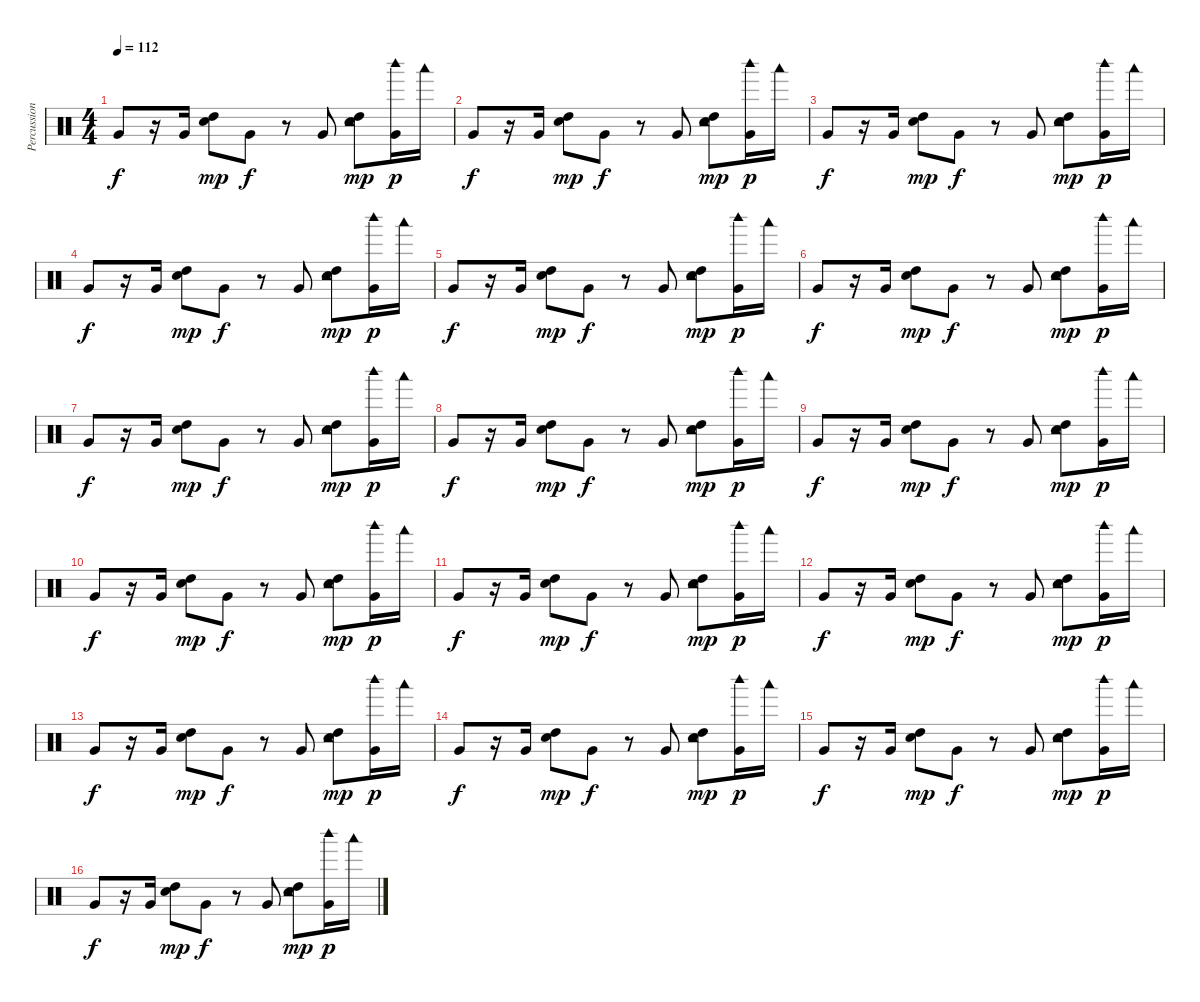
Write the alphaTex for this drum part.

\track ("Percussion" "Percussion") {instrument percussion}
\staff {score}
\articulation defaults
\ts (4 4)
\tempo 112
\clef neutral
\ks c "Very Low Tom (hit)".8{dy f}
r.16 "Very Low Tom (hit)".16 ("Snare (hit) 2" "High Tom (hit)").8{dy mp} "Very Low Tom (hit)".8{dy f} r.8 "Very Low Tom (hit)".8 ("Tambourine (hit)" "Snare (hit) 2" "High Tom (hit)").8{dy mp} ("Woodblock high (hit)" "Very Low Tom (hit)").16{dy p} "Woodblock low (hit)".16 |
"Very Low Tom (hit)".8{dy f} r.16 "Very Low Tom (hit)".16 ("Snare (hit) 2" "High Tom (hit)").8{dy mp} "Very Low Tom (hit)".8{dy f} r.8 "Very Low Tom (hit)".8 ("Tambourine (hit)" "Snare (hit) 2" "High Tom (hit)").8{dy mp} ("Woodblock high (hit)" "Very Low Tom (hit)").16{dy p} "Woodblock low (hit)".16 |
"Very Low Tom (hit)".8{dy f} r.16 "Very Low Tom (hit)".16 ("Snare (hit) 2" "High Tom (hit)").8{dy mp} "Very Low Tom (hit)".8{dy f} r.8 "Very Low Tom (hit)".8 ("Tambourine (hit)" "Snare (hit) 2" "High Tom (hit)").8{dy mp} ("Woodblock high (hit)" "Very Low Tom (hit)").16{dy p} "Woodblock low (hit)".16 |
"Very Low Tom (hit)".8{dy f} r.16 "Very Low Tom (hit)".16 ("Snare (hit) 2" "High Tom (hit)").8{dy mp} "Very Low Tom (hit)".8{dy f} r.8 "Very Low Tom (hit)".8 ("Tambourine (hit)" "Snare (hit) 2" "High Tom (hit)").8{dy mp} ("Woodblock high (hit)" "Very Low Tom (hit)").16{dy p} "Woodblock low (hit)".16 |
"Very Low Tom (hit)".8{dy f} r.16 "Very Low Tom (hit)".16 ("Snare (hit) 2" "High Tom (hit)").8{dy mp} "Very Low Tom (hit)".8{dy f} r.8 "Very Low Tom (hit)".8 ("Tambourine (hit)" "Snare (hit) 2" "High Tom (hit)").8{dy mp} ("Woodblock high (hit)" "Very Low Tom (hit)").16{dy p} "Woodblock low (hit)".16 |
"Very Low Tom (hit)".8{dy f} r.16 "Very Low Tom (hit)".16 ("Snare (hit) 2" "High Tom (hit)").8{dy mp} "Very Low Tom (hit)".8{dy f} r.8 "Very Low Tom (hit)".8 ("Tambourine (hit)" "Snare (hit) 2" "High Tom (hit)").8{dy mp} ("Woodblock high (hit)" "Very Low Tom (hit)").16{dy p} "Woodblock low (hit)".16 |
"Very Low Tom (hit)".8{dy f} r.16 "Very Low Tom (hit)".16 ("Snare (hit) 2" "High Tom (hit)").8{dy mp} "Very Low Tom (hit)".8{dy f} r.8 "Very Low Tom (hit)".8 ("Tambourine (hit)" "Snare (hit) 2" "High Tom (hit)").8{dy mp} ("Woodblock high (hit)" "Very Low Tom (hit)").16{dy p} "Woodblock low (hit)".16 |
"Very Low Tom (hit)".8{dy f} r.16 "Very Low Tom (hit)".16 ("Snare (hit) 2" "High Tom (hit)").8{dy mp} "Very Low Tom (hit)".8{dy f} r.8 "Very Low Tom (hit)".8 ("Tambourine (hit)" "Snare (hit) 2" "High Tom (hit)").8{dy mp} ("Woodblock high (hit)" "Very Low Tom (hit)").16{dy p} "Woodblock low (hit)".16 |
"Very Low Tom (hit)".8{dy f} r.16 "Very Low Tom (hit)".16 ("Snare (hit) 2" "High Tom (hit)").8{dy mp} "Very Low Tom (hit)".8{dy f} r.8 "Very Low Tom (hit)".8 ("Tambourine (hit)" "Snare (hit) 2" "High Tom (hit)").8{dy mp} ("Woodblock high (hit)" "Very Low Tom (hit)").16{dy p} "Woodblock low (hit)".16 |
"Very Low Tom (hit)".8{dy f} r.16 "Very Low Tom (hit)".16 ("Snare (hit) 2" "High Tom (hit)").8{dy mp} "Very Low Tom (hit)".8{dy f} r.8 "Very Low Tom (hit)".8 ("Tambourine (hit)" "Snare (hit) 2" "High Tom (hit)").8{dy mp} ("Woodblock high (hit)" "Very Low Tom (hit)").16{dy p} "Woodblock low (hit)".16 |
"Very Low Tom (hit)".8{dy f} r.16 "Very Low Tom (hit)".16 ("Snare (hit) 2" "High Tom (hit)").8{dy mp} "Very Low Tom (hit)".8{dy f} r.8 "Very Low Tom (hit)".8 ("Tambourine (hit)" "Snare (hit) 2" "High Tom (hit)").8{dy mp} ("Woodblock high (hit)" "Very Low Tom (hit)").16{dy p} "Woodblock low (hit)".16 |
"Very Low Tom (hit)".8{dy f} r.16 "Very Low Tom (hit)".16 ("Snare (hit) 2" "High Tom (hit)").8{dy mp} "Very Low Tom (hit)".8{dy f} r.8 "Very Low Tom (hit)".8 ("Tambourine (hit)" "Snare (hit) 2" "High Tom (hit)").8{dy mp} ("Woodblock high (hit)" "Very Low Tom (hit)").16{dy p} "Woodblock low (hit)".16 |
"Very Low Tom (hit)".8{dy f} r.16 "Very Low Tom (hit)".16 ("Snare (hit) 2" "High Tom (hit)").8{dy mp} "Very Low Tom (hit)".8{dy f} r.8 "Very Low Tom (hit)".8 ("Tambourine (hit)" "Snare (hit) 2" "High Tom (hit)").8{dy mp} ("Woodblock high (hit)" "Very Low Tom (hit)").16{dy p} "Woodblock low (hit)".16 |
"Very Low Tom (hit)".8{dy f} r.16 "Very Low Tom (hit)".16 ("Snare (hit) 2" "High Tom (hit)").8{dy mp} "Very Low Tom (hit)".8{dy f} r.8 "Very Low Tom (hit)".8 ("Tambourine (hit)" "Snare (hit) 2" "High Tom (hit)").8{dy mp} ("Woodblock high (hit)" "Very Low Tom (hit)").16{dy p} "Woodblock low (hit)".16 |
"Very Low Tom (hit)".8{dy f} r.16 "Very Low Tom (hit)".16 ("Snare (hit) 2" "High Tom (hit)").8{dy mp} "Very Low Tom (hit)".8{dy f} r.8 "Very Low Tom (hit)".8 ("Tambourine (hit)" "Snare (hit) 2" "High Tom (hit)").8{dy mp} ("Woodblock high (hit)" "Very Low Tom (hit)").16{dy p} "Woodblock low (hit)".16 |
"Very Low Tom (hit)".8{dy f} r.16 "Very Low Tom (hit)".16 ("Snare (hit) 2" "High Tom (hit)").8{dy mp} "Very Low Tom (hit)".8{dy f} r.8 "Very Low Tom (hit)".8 ("Tambourine (hit)" "Snare (hit) 2" "High Tom (hit)").8{dy mp} ("Woodblock high (hit)" "Very Low Tom (hit)").16{dy p} "Woodblock low (hit)".16
